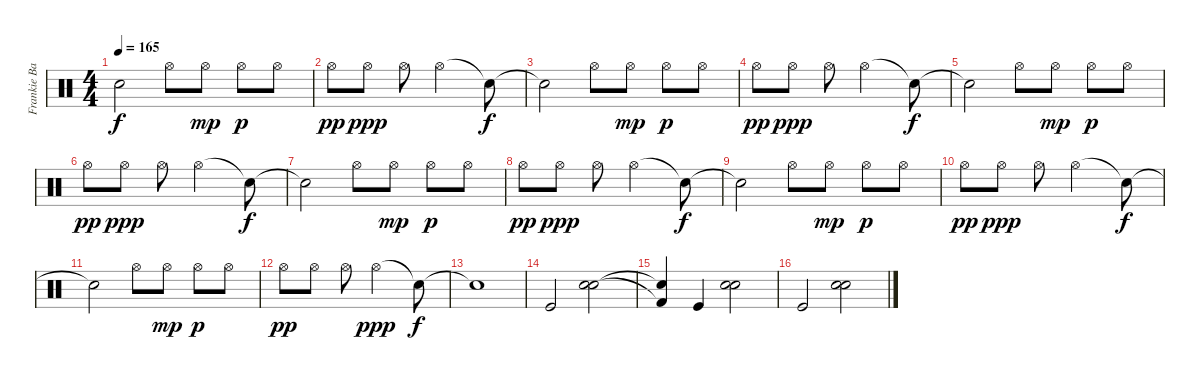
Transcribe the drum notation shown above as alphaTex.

\track ("Frankie Banali/Drums" "Frankie Ba") {instrument percussion}
\staff {score}
\articulation defaults
\ts (4 4)
\tempo 165
\clef neutral
\ks c "Snare (hit)"{t}.2{dy f} "Hi-Hat (open)".8 "Hi-Hat (open)".8{dy mp} "Hi-Hat (open)".8{dy p} "Hi-Hat (open)".8
|
"Hi-Hat (open)".8{dy pp} "Hi-Hat (open)".8{dy ppp} "Hi-Hat (open)".8 "Hi-Hat (open)".2 "Snare (hit)"{t}.8{dy f} |
"Snare (hit)"{t}.2 "Hi-Hat (open)".8 "Hi-Hat (open)".8{dy mp} "Hi-Hat (open)".8{dy p} "Hi-Hat (open)".8 |
"Hi-Hat (open)".8{dy pp} "Hi-Hat (open)".8{dy ppp} "Hi-Hat (open)".8 "Hi-Hat (open)".2 "Snare (hit)"{t}.8{dy f} |
"Snare (hit)"{t}.2 "Hi-Hat (open)".8 "Hi-Hat (open)".8{dy mp} "Hi-Hat (open)".8{dy p} "Hi-Hat (open)".8 |
"Hi-Hat (open)".8{dy pp} "Hi-Hat (open)".8{dy ppp} "Hi-Hat (open)".8 "Hi-Hat (open)".2 "Snare (hit)"{t}.8{dy f} |
"Snare (hit)"{t}.2 "Hi-Hat (open)".8 "Hi-Hat (open)".8{dy mp} "Hi-Hat (open)".8{dy p} "Hi-Hat (open)".8 |
"Hi-Hat (open)".8{dy pp} "Hi-Hat (open)".8{dy ppp} "Hi-Hat (open)".8 "Hi-Hat (open)".2 "Snare (hit)"{t}.8{dy f} |
"Snare (hit)"{t}.2 "Hi-Hat (open)".8 "Hi-Hat (open)".8{dy mp} "Hi-Hat (open)".8{dy p} "Hi-Hat (open)".8 |
"Hi-Hat (open)".8{dy pp} "Hi-Hat (open)".8{dy ppp} "Hi-Hat (open)".8 "Hi-Hat (open)".2 "Snare (hit)"{t}.8{dy f} |
"Snare (hit)"{t}.2 "Hi-Hat (open)".8 "Hi-Hat (open)".8{dy mp} "Hi-Hat (open)".8{dy p} "Hi-Hat (open)".8 |
"Hi-Hat (open)".8{dy pp} "Hi-Hat (open)".8 "Hi-Hat (open)".8 "Hi-Hat (open)".2{dy ppp} "Snare (hit)"{t}.8{dy f} |
"Snare (hit)"{t}.1 |
"Kick (hit)".2 ("Snare (hit) 2" "Snare (hit) 2").2 |
("Kick (hit) 2"{t} "Snare (hit)"{t}).4 "Kick (hit)".4 ("Snare (hit) 2" "Snare (hit) 2").2 |
"Kick (hit)".2 ("Snare (hit) 2" "Snare (hit) 2").2
